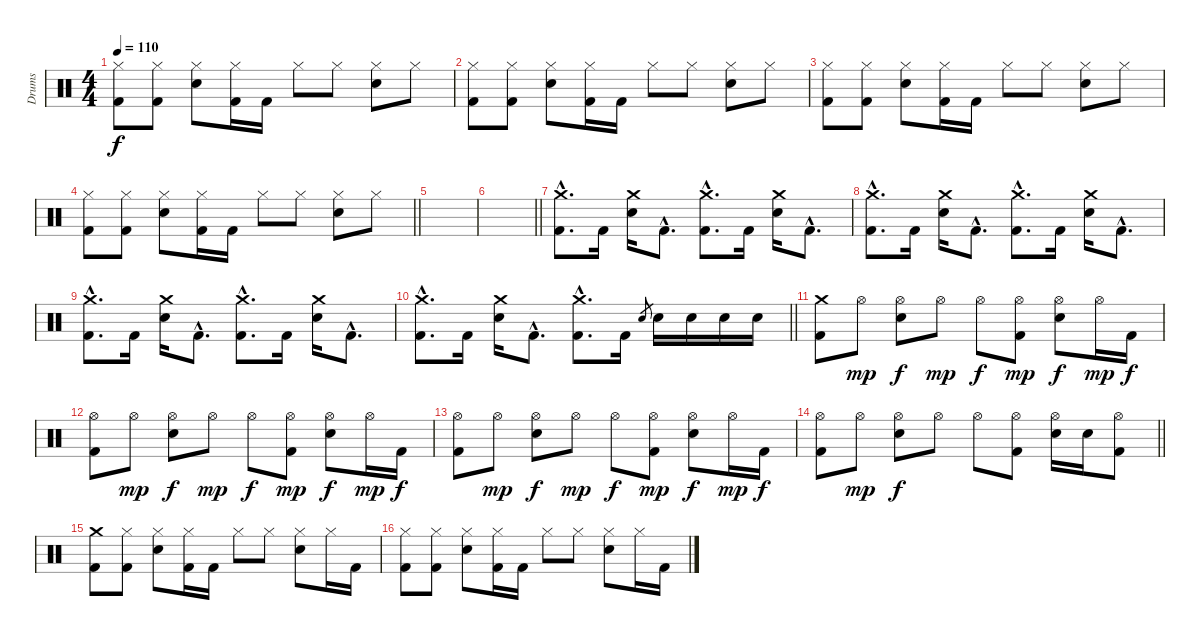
\track ("Drums" "Drums") {instrument percussion}
\staff {score}
\articulation defaults
\ts (4 4)
\tempo 110
\clef neutral
\ks c
("Hi-Hat (closed)" "Kick (hit) 2").8{dy f} ("Hi-Hat (closed)" "Kick (hit) 2").8 ("Hi-Hat (closed)" "Snare (hit) 2").8 ("Hi-Hat (closed)" "Kick (hit) 2").16 "Kick (hit) 2".16 "Hi-Hat (closed)".8 "Hi-Hat (closed)".8 ("Hi-Hat (closed)" "Snare (hit) 2").8 "Hi-Hat (closed)".8 |
("Hi-Hat (closed)" "Kick (hit) 2").8 ("Hi-Hat (closed)" "Kick (hit) 2").8 ("Hi-Hat (closed)" "Snare (hit) 2").8 ("Hi-Hat (closed)" "Kick (hit) 2").16 "Kick (hit) 2".16 "Hi-Hat (closed)".8 "Hi-Hat (closed)".8 ("Hi-Hat (closed)" "Snare (hit) 2").8 "Hi-Hat (closed)".8 |
("Hi-Hat (closed)" "Kick (hit) 2").8 ("Hi-Hat (closed)" "Kick (hit) 2").8 ("Hi-Hat (closed)" "Snare (hit) 2").8 ("Hi-Hat (closed)" "Kick (hit) 2").16 "Kick (hit) 2".16 "Hi-Hat (closed)".8 "Hi-Hat (closed)".8 ("Hi-Hat (closed)" "Snare (hit) 2").8 "Hi-Hat (closed)".8 |
\barLineRight lightlight
("Hi-Hat (closed)" "Kick (hit) 2").8 ("Hi-Hat (closed)" "Kick (hit) 2").8 ("Hi-Hat (closed)" "Snare (hit) 2").8 ("Hi-Hat (closed)" "Kick (hit) 2").16 "Kick (hit) 2".16 "Hi-Hat (closed)".8 "Hi-Hat (closed)".8 ("Hi-Hat (closed)" "Snare (hit) 2").8 "Hi-Hat (closed)".8 |
|
\barLineRight lightlight
|
("Crash medium (hit)"{hac} "Kick (hit) 2"{hac}).8{d} "Kick (hit) 2".16 ("Crash medium (hit)" "Snare (hit) 2").16 "Kick (hit) 2"{hac}.8{d} ("Crash medium (hit)"{hac} "Kick (hit) 2"{hac}).8{d} "Kick (hit) 2".16 ("Crash medium (hit)" "Snare (hit) 2").16 "Kick (hit) 2"{hac}.8{d} |
("Crash medium (hit)"{hac} "Kick (hit) 2"{hac}).8{d} "Kick (hit) 2".16 ("Crash medium (hit)" "Snare (hit) 2").16 "Kick (hit) 2"{hac}.8{d} ("Crash medium (hit)"{hac} "Kick (hit) 2"{hac}).8{d} "Kick (hit) 2".16 ("Crash medium (hit)" "Snare (hit) 2").16 "Kick (hit) 2"{hac}.8{d} |
("Crash medium (hit)"{hac} "Kick (hit) 2"{hac}).8{d} "Kick (hit) 2".16 ("Crash medium (hit)" "Snare (hit) 2").16 "Kick (hit) 2"{hac}.8{d} ("Crash medium (hit)"{hac} "Kick (hit) 2"{hac}).8{d} "Kick (hit) 2".16 ("Crash medium (hit)" "Snare (hit) 2").16 "Kick (hit) 2"{hac}.8{d} |
\barLineRight lightlight
("Crash medium (hit)"{hac} "Kick (hit) 2"{hac}).8{d} "Kick (hit) 2".16 ("Crash medium (hit)" "Snare (hit) 2").16 "Kick (hit) 2"{hac}.8{d} ("Crash medium (hit)"{hac} "Kick (hit) 2"{hac}).8{d} "Kick (hit) 2".16 "Electric Snare (hit)".8{gr} "Snare (hit) 2".16 "Snare (hit) 2".16 "Snare (hit) 2".16 "Snare (hit) 2".16 |
("Crash medium (hit)" "Kick (hit) 2").8 "Hi-Hat (open)".8{dy mp} ("Hi-Hat (open)" "Snare (hit) 2").8{dy f} "Hi-Hat (open)".8{dy mp} "Hi-Hat (open)".8{dy f} ("Hi-Hat (open)" "Kick (hit) 2").8{dy mp} ("Hi-Hat (open)" "Snare (hit) 2").8{dy f} "Hi-Hat (open)".16{dy mp} "Kick (hit) 2".16{dy f} |
("Hi-Hat (open)" "Kick (hit) 2").8 "Hi-Hat (open)".8{dy mp} ("Hi-Hat (open)" "Snare (hit) 2").8{dy f} "Hi-Hat (open)".8{dy mp} "Hi-Hat (open)".8{dy f} ("Hi-Hat (open)" "Kick (hit) 2").8{dy mp} ("Hi-Hat (open)" "Snare (hit) 2").8{dy f} "Hi-Hat (open)".16{dy mp} "Kick (hit) 2".16{dy f} |
("Hi-Hat (open)" "Kick (hit) 2").8 "Hi-Hat (open)".8{dy mp} ("Hi-Hat (open)" "Snare (hit) 2").8{dy f} "Hi-Hat (open)".8{dy mp} "Hi-Hat (open)".8{dy f} ("Hi-Hat (open)" "Kick (hit) 2").8{dy mp} ("Hi-Hat (open)" "Snare (hit) 2").8{dy f} "Hi-Hat (open)".16{dy mp} "Kick (hit) 2".16{dy f} |
\barLineRight lightlight
("Hi-Hat (open)" "Kick (hit) 2").8 "Hi-Hat (open)".8{dy mp} ("Hi-Hat (open)" "Snare (hit) 2").8{dy f} "Hi-Hat (open)".8 "Hi-Hat (open)".8 ("Hi-Hat (open)" "Kick (hit) 2").8 ("Hi-Hat (open)" "Snare (hit) 2").16 "Snare (hit) 2".16 ("Hi-Hat (open)" "Kick (hit) 2").8 |
("Crash medium (hit)" "Kick (hit) 2").8 ("Hi-Hat (closed)" "Kick (hit) 2").8 ("Hi-Hat (closed)" "Snare (hit) 2").8 ("Hi-Hat (closed)" "Kick (hit) 2").16 "Kick (hit) 2".16 "Hi-Hat (closed)".8 "Hi-Hat (closed)".8 ("Hi-Hat (closed)" "Snare (hit) 2").8 "Hi-Hat (closed)".16 "Kick (hit) 2".16 |
("Hi-Hat (closed)" "Kick (hit) 2").8 ("Hi-Hat (closed)" "Kick (hit) 2").8 ("Hi-Hat (closed)" "Snare (hit) 2").8 ("Hi-Hat (closed)" "Kick (hit) 2").16 "Kick (hit) 2".16 "Hi-Hat (closed)".8 "Hi-Hat (closed)".8 ("Hi-Hat (closed)" "Snare (hit) 2").8 "Hi-Hat (closed)".16 "Kick (hit) 2".16
